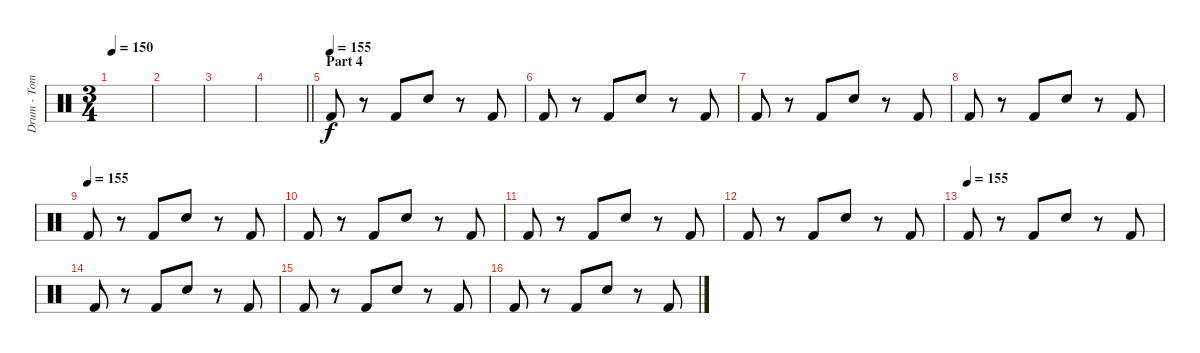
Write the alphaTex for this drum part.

\track ("Drum - Tom" "Drum - Tom") {instrument percussion}
\staff {score}
\articulation defaults
\ts (3 4)
\tempo 150
\clef neutral
\ks c
|
|
|
\barLineRight lightlight
|
\section ("" "Part 4")
\tempo (155)
"Kick (hit) 2".8 r.8 "Kick (hit) 2".8 "Electric Snare (hit)".8 r.8 "Kick (hit) 2".8 |
"Kick (hit) 2".8 r.8 "Kick (hit) 2".8 "Electric Snare (hit)".8 r.8 "Kick (hit) 2".8 |
"Kick (hit) 2".8 r.8 "Kick (hit) 2".8 "Electric Snare (hit)".8 r.8 "Kick (hit) 2".8 |
"Kick (hit) 2".8 r.8 "Kick (hit) 2".8 "Electric Snare (hit)".8 r.8 "Kick (hit) 2".8 |
\tempo (155)
"Kick (hit) 2".8 r.8 "Kick (hit) 2".8 "Electric Snare (hit)".8 r.8 "Kick (hit) 2".8 |
"Kick (hit) 2".8 r.8 "Kick (hit) 2".8 "Electric Snare (hit)".8 r.8 "Kick (hit) 2".8 |
"Kick (hit) 2".8 r.8 "Kick (hit) 2".8 "Electric Snare (hit)".8 r.8 "Kick (hit) 2".8 |
"Kick (hit) 2".8 r.8 "Kick (hit) 2".8 "Electric Snare (hit)".8 r.8 "Kick (hit) 2".8 |
\tempo (155)
"Kick (hit) 2".8 r.8 "Kick (hit) 2".8 "Electric Snare (hit)".8 r.8 "Kick (hit) 2".8 |
"Kick (hit) 2".8 r.8 "Kick (hit) 2".8 "Electric Snare (hit)".8 r.8 "Kick (hit) 2".8 |
"Kick (hit) 2".8 r.8 "Kick (hit) 2".8 "Electric Snare (hit)".8 r.8 "Kick (hit) 2".8 |
"Kick (hit) 2".8 r.8 "Kick (hit) 2".8 "Electric Snare (hit)".8 r.8 "Kick (hit) 2".8
